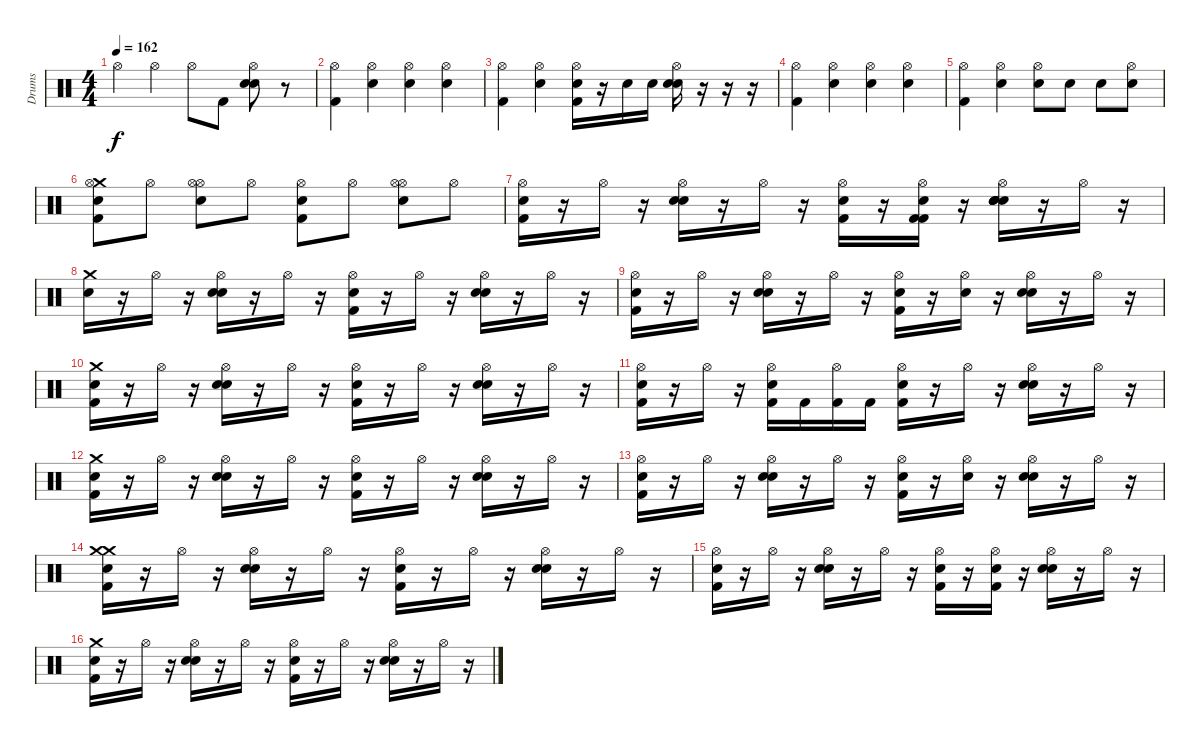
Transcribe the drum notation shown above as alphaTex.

\track ("Drums" "Drums") {instrument percussion}
\staff {score}
\articulation defaults
\ts (4 4)
\tempo 162
\clef neutral
\ks c "Hi-Hat (open)".4{dy f} "Hi-Hat (open)".4 "Hi-Hat (open)".8 "Kick (hit) 2".8
("Hi-Hat (open)" "Electric Snare (hit)" "Electric Snare (hit)").8 r.8 |
("Hi-Hat (open)" "Kick (hit) 2").4 ("Electric Snare (hit)" "Hi-Hat (open)").4 ("Hi-Hat (open)" "Snare (hit) 2").4 ("Electric Snare (hit)" "Hi-Hat (open)").4 |
("Hi-Hat (open)" "Kick (hit) 2").4 ("Hi-Hat (open)" "Electric Snare (hit)").4 ("Electric Snare (hit)" "Hi-Hat (open)" "Kick (hit) 2").16 r.16 "Snare (hit) 2".16 "Snare (hit) 2".16 ("Electric Snare (hit)" "Hi-Hat (open)" "Snare (hit) 2").16 r.16 r.16 r.16 |
("Hi-Hat (open)" "Kick (hit) 2").4 ("Electric Snare (hit)" "Hi-Hat (open)").4 ("Hi-Hat (open)" "Snare (hit) 2").4 ("Electric Snare (hit)" "Hi-Hat (open)").4 |
("Hi-Hat (open)" "Kick (hit) 2").4 ("Hi-Hat (open)" "Electric Snare (hit)").4 ("Hi-Hat (open)" "Snare (hit) 2").8 "Electric Snare (hit)".8 "Electric Snare (hit)".8 ("Hi-Hat (open)" "Electric Snare (hit)").8 |
("Crash medium (hit)" "Electric Snare (hit)" "Hi-Hat (open)" "Kick (hit) 2").8 "Hi-Hat (open)".8 ("Hi-Hat (open)" "Hi-Hat (open)" "Snare (hit) 2").8 "Hi-Hat (open)".8 ("Electric Snare (hit)" "Hi-Hat (open)" "Kick (hit) 2").8 "Hi-Hat (open)".8 ("Hi-Hat (open)" "Hi-Hat (open)" "Snare (hit) 2").8 "Hi-Hat (open)".8 |
("Electric Snare (hit)" "Hi-Hat (open)" "Kick (hit) 2").16 r.16 "Hi-Hat (open)".16 r.16 ("Electric Snare (hit)" "Hi-Hat (open)" "Snare (hit) 2").16 r.16 "Hi-Hat (open)".16 r.16 ("Electric Snare (hit)" "Hi-Hat (open)" "Kick (hit) 2").16 r.16 ("Electric Snare (hit)" "Kick (hit) 2" "Kick (hit) 2" "Hi-Hat (open)").16 r.16 ("Electric Snare (hit)" "Electric Snare (hit)" "Electric Snare (hit)" "Hi-Hat (open)" "Snare (hit) 2").16 r.16 "Hi-Hat (open)".16 r.16 |
("Crash medium (hit)" "Electric Snare (hit)").16 r.16 "Hi-Hat (open)".16 r.16 ("Electric Snare (hit)" "Hi-Hat (open)" "Snare (hit) 2").16 r.16 "Hi-Hat (open)".16 r.16 ("Electric Snare (hit)" "Hi-Hat (open)" "Kick (hit) 2").16 r.16 "Hi-Hat (open)".16 r.16 ("Electric Snare (hit)" "Hi-Hat (open)" "Snare (hit) 2").16 r.16 "Hi-Hat (open)".16 r.16 |
("Electric Snare (hit)" "Hi-Hat (open)" "Kick (hit) 2").16 r.16 "Hi-Hat (open)".16 r.16 ("Electric Snare (hit)" "Hi-Hat (open)" "Snare (hit) 2").16 r.16 "Hi-Hat (open)".16 r.16 ("Electric Snare (hit)" "Hi-Hat (open)" "Kick (hit) 2").16 r.16 ("Hi-Hat (open)" "Electric Snare (hit)").16 r.16 ("Electric Snare (hit)" "Hi-Hat (open)" "Snare (hit) 2").16 r.16 "Hi-Hat (open)".16 r.16 |
("Crash medium (hit)" "Electric Snare (hit)" "Kick (hit) 2").16 r.16 "Hi-Hat (open)".16 r.16 ("Electric Snare (hit)" "Hi-Hat (open)" "Snare (hit) 2").16 r.16 "Hi-Hat (open)".16 r.16 ("Electric Snare (hit)" "Hi-Hat (open)" "Kick (hit) 2").16 r.16 "Hi-Hat (open)".16 r.16 ("Electric Snare (hit)" "Hi-Hat (open)" "Snare (hit) 2").16 r.16 "Hi-Hat (open)".16 r.16 |
("Electric Snare (hit)" "Hi-Hat (open)" "Kick (hit) 2").16 r.16 "Hi-Hat (open)".16 r.16 ("Electric Snare (hit)" "Hi-Hat (open)" "Kick (hit) 2").16 "Kick (hit) 2".16 ("Hi-Hat (open)" "Kick (hit) 2").16 "Kick (hit) 2".16 ("Electric Snare (hit)" "Hi-Hat (open)" "Kick (hit) 2").16 r.16 "Hi-Hat (open)".16 r.16 ("Electric Snare (hit)" "Hi-Hat (open)" "Snare (hit) 2").16 r.16 "Hi-Hat (open)".16 r.16 |
("Crash medium (hit)" "Electric Snare (hit)" "Kick (hit) 2").16 r.16 "Hi-Hat (open)".16 r.16 ("Electric Snare (hit)" "Hi-Hat (open)" "Snare (hit) 2").16 r.16 "Hi-Hat (open)".16 r.16 ("Electric Snare (hit)" "Hi-Hat (open)" "Kick (hit) 2").16 r.16 "Hi-Hat (open)".16 r.16 ("Electric Snare (hit)" "Hi-Hat (open)" "Snare (hit) 2").16 r.16 "Hi-Hat (open)".16 r.16 |
("Electric Snare (hit)" "Hi-Hat (open)" "Kick (hit) 2").16 r.16 "Hi-Hat (open)".16 r.16 ("Electric Snare (hit)" "Hi-Hat (open)" "Snare (hit) 2").16 r.16 "Hi-Hat (open)".16 r.16 ("Electric Snare (hit)" "Hi-Hat (open)" "Kick (hit) 2").16 r.16 ("Hi-Hat (open)" "Electric Snare (hit)").16 r.16 ("Electric Snare (hit)" "Hi-Hat (open)" "Snare (hit) 2").16 r.16 "Hi-Hat (open)".16 r.16 |
("Crash medium (hit)" "Crash medium (hit)" "Electric Snare (hit)" "Kick (hit) 2").16 r.16 "Hi-Hat (open)".16 r.16 ("Electric Snare (hit)" "Hi-Hat (open)" "Snare (hit) 2").16 r.16 "Hi-Hat (open)".16 r.16 ("Electric Snare (hit)" "Hi-Hat (open)" "Kick (hit) 2").16 r.16 "Hi-Hat (open)".16 r.16 ("Electric Snare (hit)" "Hi-Hat (open)" "Snare (hit) 2").16 r.16 "Hi-Hat (open)".16 r.16 |
("Electric Snare (hit)" "Hi-Hat (open)" "Kick (hit) 2").16 r.16 "Hi-Hat (open)".16 r.16 ("Electric Snare (hit)" "Hi-Hat (open)" "Snare (hit) 2").16 r.16 "Hi-Hat (open)".16 r.16 ("Electric Snare (hit)" "Hi-Hat (open)" "Kick (hit) 2").16 r.16 ("Electric Snare (hit)" "Kick (hit) 2" "Hi-Hat (open)").16 r.16 ("Electric Snare (hit)" "Hi-Hat (open)" "Snare (hit) 2").16 r.16 "Hi-Hat (open)".16 r.16 |
("Crash medium (hit)" "Electric Snare (hit)" "Kick (hit) 2").16 r.16 "Hi-Hat (open)".16 r.16 ("Electric Snare (hit)" "Hi-Hat (open)" "Snare (hit) 2").16 r.16 "Hi-Hat (open)".16 r.16 ("Electric Snare (hit)" "Hi-Hat (open)" "Kick (hit) 2").16 r.16 "Hi-Hat (open)".16 r.16 ("Electric Snare (hit)" "Hi-Hat (open)" "Snare (hit) 2").16 r.16 "Hi-Hat (open)".16 r.16
